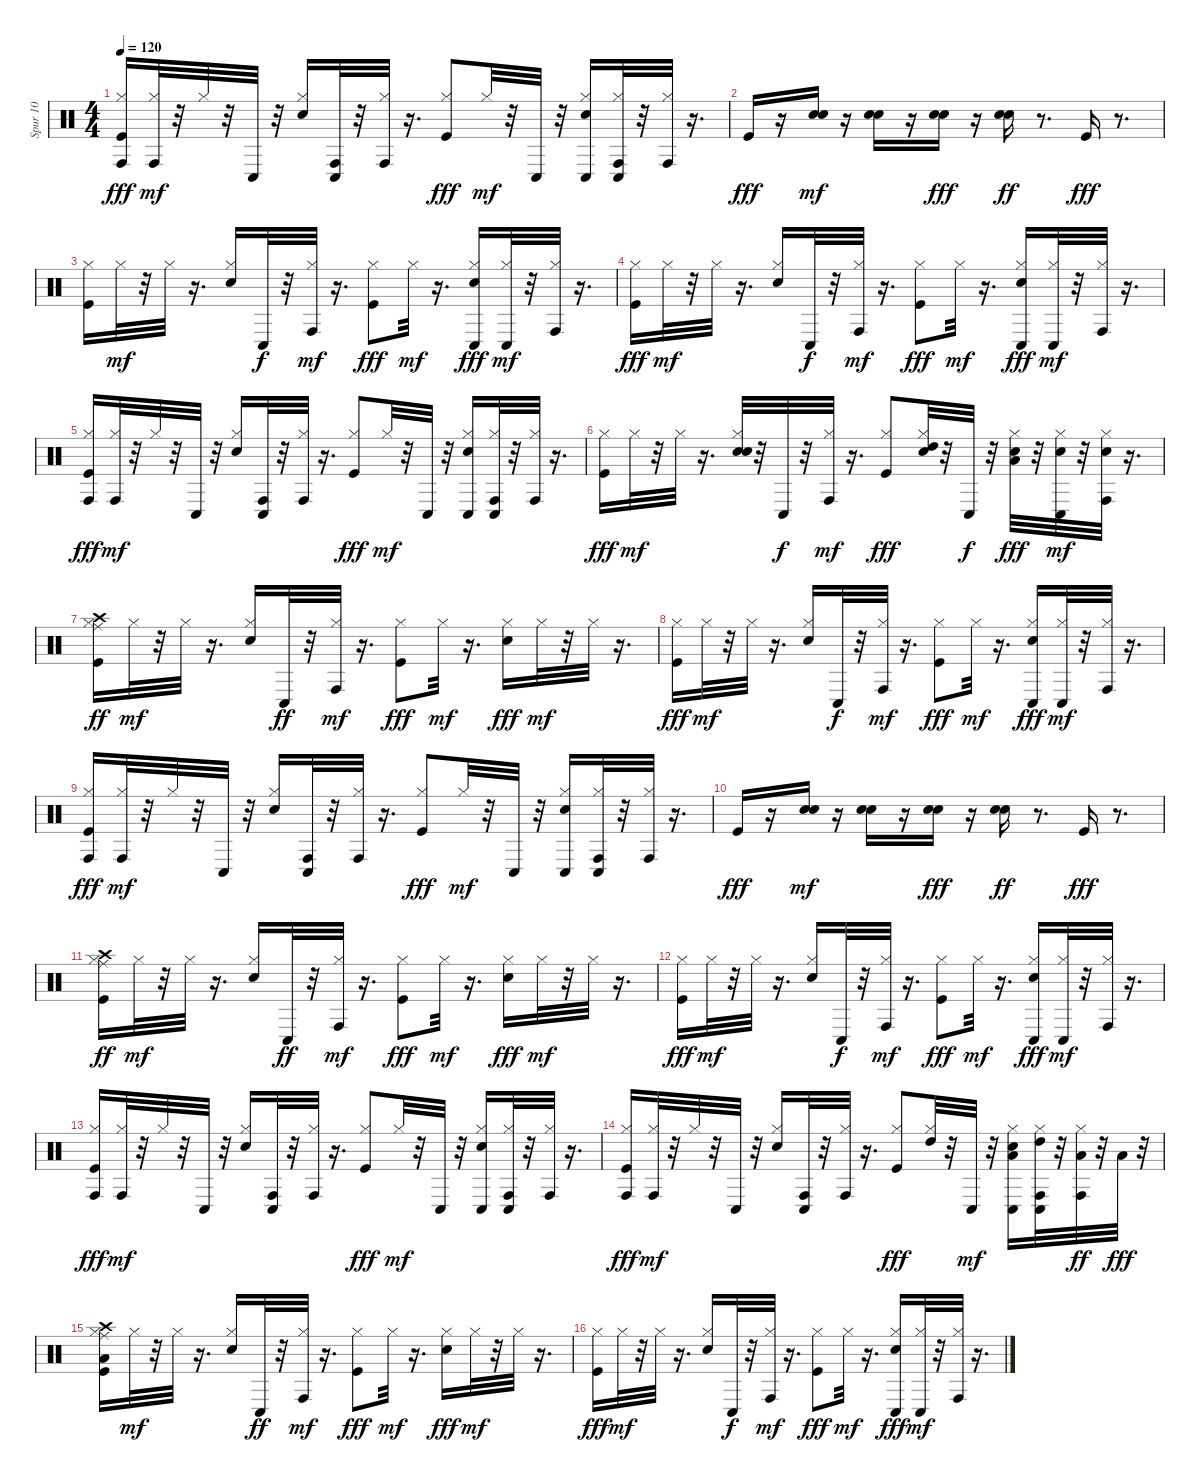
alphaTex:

\track ("Spur 10" "Spur 10") {instrument percussion}
\staff {score}
\articulation defaults
\ts (4 4)
\tempo 120
\clef neutral
\ks c
("Kick (hit)" "Hi-Hat (closed)" "Conga high (hit)").16{dy fff} ("Hi-Hat (closed)" "Conga high (hit)").32{dy mf} r.32 "Hi-Hat (closed)".32 r.32 "Conga low (hit)".32 r.32 ("Snare (hit) 2" "Hi-Hat (closed)").16 ("Conga high (hit)" "Conga low (hit)").32 r.32 ("Hi-Hat (closed)" "Conga high (hit)").32 r.16{d} ("Kick (hit)" "Hi-Hat (closed)").8{dy fff} "Hi-Hat (closed)".32{dy mf} r.32 "Conga low (hit)".32 r.32 ("Snare (hit) 2" "Hi-Hat (closed)" "Conga low (hit)").16 ("Hi-Hat (closed)" "Conga high (hit)" "Conga low (hit)").32 r.32 ("Hi-Hat (closed)" "Conga high (hit)").32 r.16{d} |
"Kick (hit)".16{dy fff} r.16 ("Snare (hit) 2" "Electric Snare (hit)").16{dy mf} r.16 ("Snare (hit) 2" "Electric Snare (hit)").16 r.16 ("Snare (hit) 2" "Electric Snare (hit)").16{dy fff} r.16 ("Snare (hit) 2" "Electric Snare (hit)").16{dy ff} r.8{d} "Kick (hit)".16{dy fff} r.8{d} |
("Kick (hit)" "Hi-Hat (closed)").16 "Hi-Hat (closed)".32{dy mf} r.32 "Hi-Hat (closed)".32 r.16{d} ("Snare (hit) 2" "Hi-Hat (closed)").16 "Conga low (hit)".32{dy f} r.32 ("Hi-Hat (closed)" "Conga high (hit)").32{dy mf} r.16{d} ("Kick (hit)" "Hi-Hat (closed)").8{dy fff} "Hi-Hat (closed)".32{dy mf} r.16{d} ("Snare (hit) 2" "Hi-Hat (closed)" "Conga low (hit)").16{dy fff} ("Hi-Hat (closed)" "Conga low (hit)").32{dy mf} r.32 ("Hi-Hat (closed)" "Conga high (hit)").32 r.16{d} |
("Kick (hit)" "Hi-Hat (closed)").16{dy fff} "Hi-Hat (closed)".32{dy mf} r.32 "Hi-Hat (closed)".32 r.16{d} ("Snare (hit) 2" "Hi-Hat (closed)").16 "Conga low (hit)".32{dy f} r.32 ("Hi-Hat (closed)" "Conga high (hit)").32{dy mf} r.16{d} ("Kick (hit)" "Hi-Hat (closed)").8{dy fff} "Hi-Hat (closed)".32{dy mf} r.16{d} ("Snare (hit) 2" "Hi-Hat (closed)" "Conga low (hit)").16{dy fff} ("Hi-Hat (closed)" "Conga low (hit)").32{dy mf} r.32 ("Hi-Hat (closed)" "Conga high (hit)").32 r.16{d} |
("Kick (hit)" "Hi-Hat (closed)" "Conga high (hit)").16{dy fff} ("Hi-Hat (closed)" "Conga high (hit)").32{dy mf} r.32 "Hi-Hat (closed)".32 r.32 "Conga low (hit)".32 r.32 ("Snare (hit) 2" "Hi-Hat (closed)").16 ("Conga high (hit)" "Conga low (hit)").32 r.32 ("Hi-Hat (closed)" "Conga high (hit)").32 r.16{d} ("Kick (hit)" "Hi-Hat (closed)").8{dy fff} "Hi-Hat (closed)".32{dy mf} r.32 "Conga low (hit)".32 r.32 ("Snare (hit) 2" "Hi-Hat (closed)" "Conga low (hit)").16 ("Hi-Hat (closed)" "Conga high (hit)" "Conga low (hit)").32 r.32 ("Hi-Hat (closed)" "Conga high (hit)").32 r.16{d} |
("Kick (hit)" "Hi-Hat (closed)").16{dy fff} "Hi-Hat (closed)".32{dy mf} r.32 "Hi-Hat (closed)".32 r.16{d} ("Snare (hit) 2" "Electric Snare (hit)" "Hi-Hat (closed)").32 r.32 "Conga low (hit)".32{dy f} r.32 ("Hi-Hat (closed)" "Conga high (hit)").32{dy mf} r.16{d} ("Kick (hit)" "Hi-Hat (closed)").8{dy fff} ("Electric Snare (hit)" "Hi-Hat (closed)" "High Tom (hit)").32 r.32 "Conga low (hit)".32{dy f} r.32 ("Snare (hit) 2" "Hi-Hat (closed)" "Low Floor Tom (hit)").32{dy fff} r.32 ("Snare (hit) 2" "Hi-Hat (closed)" "Conga low (hit)").32{dy mf} r.32 ("Snare (hit) 2" "Hi-Hat (closed)" "Conga high (hit)").32 r.16{d} |
("Kick (hit)" "Hi-Hat (closed)" "Ride (middle)" "Crash high (hit)").16{dy ff} "Hi-Hat (closed)".32{dy mf} r.32 "Hi-Hat (closed)".32 r.16{d} ("Snare (hit) 2" "Hi-Hat (closed)").16 "Conga low (hit)".32{dy ff} r.32 ("Hi-Hat (closed)" "Conga high (hit)").32{dy mf} r.16{d} ("Kick (hit)" "Hi-Hat (closed)").8{dy fff} "Hi-Hat (closed)".32{dy mf} r.16{d} ("Snare (hit) 2" "Hi-Hat (closed)").16{dy fff} "Hi-Hat (closed)".32{dy mf} r.32 "Hi-Hat (closed)".32 r.16{d} |
("Kick (hit)" "Hi-Hat (closed)").16{dy fff} "Hi-Hat (closed)".32{dy mf} r.32 "Hi-Hat (closed)".32 r.16{d} ("Snare (hit) 2" "Hi-Hat (closed)").16 "Conga low (hit)".32{dy f} r.32 ("Hi-Hat (closed)" "Conga high (hit)").32{dy mf} r.16{d} ("Kick (hit)" "Hi-Hat (closed)").8{dy fff} "Hi-Hat (closed)".32{dy mf} r.16{d} ("Snare (hit) 2" "Hi-Hat (closed)" "Conga low (hit)").16{dy fff} ("Hi-Hat (closed)" "Conga low (hit)").32{dy mf} r.32 ("Hi-Hat (closed)" "Conga high (hit)").32 r.16{d} |
("Kick (hit)" "Hi-Hat (closed)" "Conga high (hit)").16{dy fff} ("Hi-Hat (closed)" "Conga high (hit)").32{dy mf} r.32 "Hi-Hat (closed)".32 r.32 "Conga low (hit)".32 r.32 ("Snare (hit) 2" "Hi-Hat (closed)").16 ("Conga high (hit)" "Conga low (hit)").32 r.32 ("Hi-Hat (closed)" "Conga high (hit)").32 r.16{d} ("Kick (hit)" "Hi-Hat (closed)").8{dy fff} "Hi-Hat (closed)".32{dy mf} r.32 "Conga low (hit)".32 r.32 ("Snare (hit) 2" "Hi-Hat (closed)" "Conga low (hit)").16 ("Hi-Hat (closed)" "Conga high (hit)" "Conga low (hit)").32 r.32 ("Hi-Hat (closed)" "Conga high (hit)").32 r.16{d} |
"Kick (hit)".16{dy fff} r.16 ("Snare (hit) 2" "Electric Snare (hit)").16{dy mf} r.16 ("Snare (hit) 2" "Electric Snare (hit)").16 r.16 ("Snare (hit) 2" "Electric Snare (hit)").16{dy fff} r.16 ("Snare (hit) 2" "Electric Snare (hit)").16{dy ff} r.8{d} "Kick (hit)".16{dy fff} r.8{d} |
("Kick (hit)" "Hi-Hat (closed)" "Ride (middle)" "Crash high (hit)").16{dy ff} "Hi-Hat (closed)".32{dy mf} r.32 "Hi-Hat (closed)".32 r.16{d} ("Snare (hit) 2" "Hi-Hat (closed)").16 "Conga low (hit)".32{dy ff} r.32 ("Hi-Hat (closed)" "Conga high (hit)").32{dy mf} r.16{d} ("Kick (hit)" "Hi-Hat (closed)").8{dy fff} "Hi-Hat (closed)".32{dy mf} r.16{d} ("Snare (hit) 2" "Hi-Hat (closed)").16{dy fff} "Hi-Hat (closed)".32{dy mf} r.32 "Hi-Hat (closed)".32 r.16{d} |
("Kick (hit)" "Hi-Hat (closed)").16{dy fff} "Hi-Hat (closed)".32{dy mf} r.32 "Hi-Hat (closed)".32 r.16{d} ("Snare (hit) 2" "Hi-Hat (closed)").16 "Conga low (hit)".32{dy f} r.32 ("Hi-Hat (closed)" "Conga high (hit)").32{dy mf} r.16{d} ("Kick (hit)" "Hi-Hat (closed)").8{dy fff} "Hi-Hat (closed)".32{dy mf} r.16{d} ("Snare (hit) 2" "Hi-Hat (closed)" "Conga low (hit)").16{dy fff} ("Hi-Hat (closed)" "Conga low (hit)").32{dy mf} r.32 ("Hi-Hat (closed)" "Conga high (hit)").32 r.16{d} |
("Kick (hit)" "Hi-Hat (closed)" "Conga high (hit)").16{dy fff} ("Hi-Hat (closed)" "Conga high (hit)").32{dy mf} r.32 "Hi-Hat (closed)".32 r.32 "Conga low (hit)".32 r.32 ("Snare (hit) 2" "Hi-Hat (closed)").16 ("Conga high (hit)" "Conga low (hit)").32 r.32 ("Hi-Hat (closed)" "Conga high (hit)").32 r.16{d} ("Kick (hit)" "Hi-Hat (closed)").8{dy fff} "Hi-Hat (closed)".32{dy mf} r.32 "Conga low (hit)".32 r.32 ("Snare (hit) 2" "Hi-Hat (closed)" "Conga low (hit)").16 ("Hi-Hat (closed)" "Conga high (hit)" "Conga low (hit)").32 r.32 ("Hi-Hat (closed)" "Conga high (hit)").32 r.16{d} |
("Kick (hit)" "Hi-Hat (closed)" "Conga high (hit)").16{dy fff} ("Hi-Hat (closed)" "Conga high (hit)").32{dy mf} r.32 "Hi-Hat (closed)".32 r.32 "Conga low (hit)".32 r.32 ("Snare (hit) 2" "Hi-Hat (closed)").16 ("Conga high (hit)" "Conga low (hit)").32 r.32 ("Hi-Hat (closed)" "Conga high (hit)").32 r.16{d} ("Kick (hit)" "Hi-Hat (closed)").8{dy fff} ("Hi-Hat (closed)" "High Tom (hit)").32 r.32 "Conga low (hit)".32{dy mf} r.32 ("Snare (hit) 2" "Hi-Hat (closed)" "Low Tom (hit)" "Conga low (hit)").16 ("Hi-Hat (closed)" "High Tom (hit)" "Conga high (hit)" "Conga low (hit)").32 r.32 ("Hi-Hat (closed)" "Low Tom (hit)" "Conga high (hit)").32{dy ff} r.32 "Low Tom (hit)".32{dy fff} r.32 |
("Kick (hit)" "Hi-Hat (closed)" "Ride (middle)" "Crash high (hit)" "Low Floor Tom (hit)").16 "Hi-Hat (closed)".32{dy mf} r.32 "Hi-Hat (closed)".32 r.16{d} ("Snare (hit) 2" "Hi-Hat (closed)").16 "Conga low (hit)".32{dy ff} r.32 ("Hi-Hat (closed)" "Conga high (hit)").32{dy mf} r.16{d} ("Kick (hit)" "Hi-Hat (closed)").8{dy fff} "Hi-Hat (closed)".32{dy mf} r.16{d} ("Snare (hit) 2" "Hi-Hat (closed)").16{dy fff} "Hi-Hat (closed)".32{dy mf} r.32 "Hi-Hat (closed)".32 r.16{d} |
("Kick (hit)" "Hi-Hat (closed)").16{dy fff} "Hi-Hat (closed)".32{dy mf} r.32 "Hi-Hat (closed)".32 r.16{d} ("Snare (hit) 2" "Hi-Hat (closed)").16 "Conga low (hit)".32{dy f} r.32 ("Hi-Hat (closed)" "Conga high (hit)").32{dy mf} r.16{d} ("Kick (hit)" "Hi-Hat (closed)").8{dy fff} "Hi-Hat (closed)".32{dy mf} r.16{d} ("Snare (hit) 2" "Hi-Hat (closed)" "Conga low (hit)").16{dy fff} ("Hi-Hat (closed)" "Conga low (hit)").32{dy mf} r.32 ("Hi-Hat (closed)" "Conga high (hit)").32 r.16{d}
